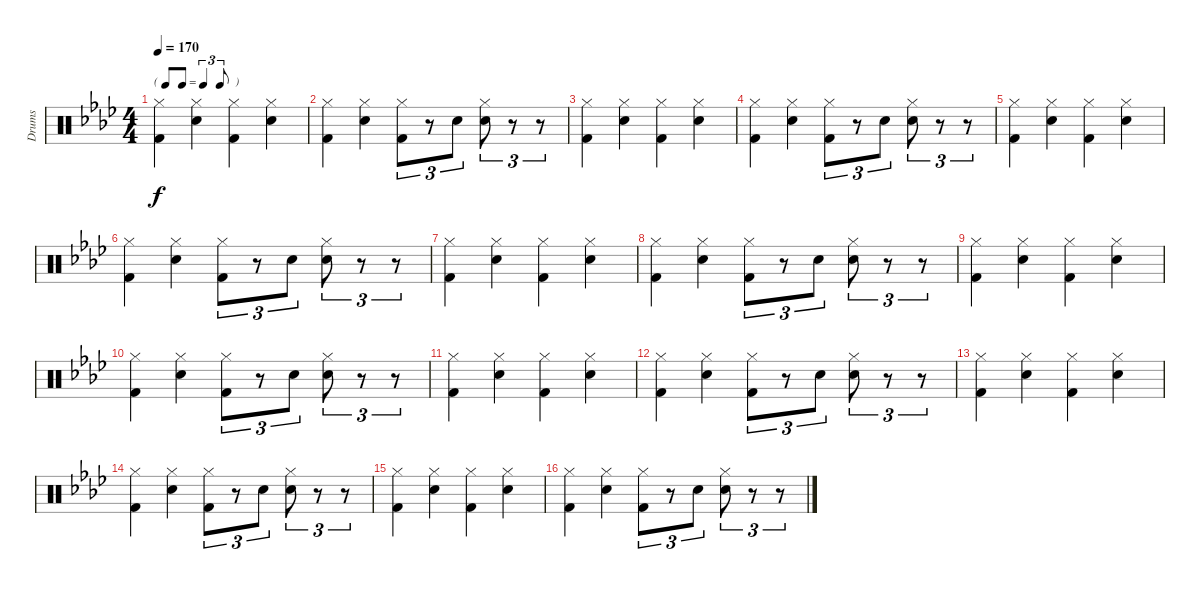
\track ("Drums" "Drums") {instrument percussion}
\staff {score}
\articulation defaults
\ts (4 4)
\tf triplet8th
\tempo 170
\clef neutral
\ks ab
("Hi-Hat (closed)" "Kick (hit) 2").4{dy f} ("Hi-Hat (closed)" "Snare (hit) 2").4 ("Hi-Hat (closed)" "Kick (hit) 2").4 ("Hi-Hat (closed)" "Snare (hit) 2").4 |
("Hi-Hat (closed)" "Kick (hit) 2").4 ("Hi-Hat (closed)" "Snare (hit) 2").4 ("Hi-Hat (closed)" "Kick (hit) 2").8{tu (3 2)} r.8{tu (3 2)} "Snare (hit) 2".8{tu (3 2)} ("Hi-Hat (closed)" "Snare (hit) 2").8{tu (3 2)} r.8{tu (3 2)} r.8{tu (3 2)} |
("Hi-Hat (closed)" "Kick (hit) 2").4 ("Hi-Hat (closed)" "Snare (hit) 2").4 ("Hi-Hat (closed)" "Kick (hit) 2").4 ("Hi-Hat (closed)" "Snare (hit) 2").4 |
("Hi-Hat (closed)" "Kick (hit) 2").4 ("Hi-Hat (closed)" "Snare (hit) 2").4 ("Hi-Hat (closed)" "Kick (hit) 2").8{tu (3 2)} r.8{tu (3 2)} "Snare (hit) 2".8{tu (3 2)} ("Hi-Hat (closed)" "Snare (hit) 2").8{tu (3 2)} r.8{tu (3 2)} r.8{tu (3 2)} |
("Hi-Hat (closed)" "Kick (hit) 2").4 ("Hi-Hat (closed)" "Snare (hit) 2").4 ("Hi-Hat (closed)" "Kick (hit) 2").4 ("Hi-Hat (closed)" "Snare (hit) 2").4 |
("Hi-Hat (closed)" "Kick (hit) 2").4 ("Hi-Hat (closed)" "Snare (hit) 2").4 ("Hi-Hat (closed)" "Kick (hit) 2").8{tu (3 2)} r.8{tu (3 2)} "Snare (hit) 2".8{tu (3 2)} ("Hi-Hat (closed)" "Snare (hit) 2").8{tu (3 2)} r.8{tu (3 2)} r.8{tu (3 2)} |
("Hi-Hat (closed)" "Kick (hit) 2").4 ("Hi-Hat (closed)" "Snare (hit) 2").4 ("Hi-Hat (closed)" "Kick (hit) 2").4 ("Hi-Hat (closed)" "Snare (hit) 2").4 |
("Hi-Hat (closed)" "Kick (hit) 2").4 ("Hi-Hat (closed)" "Snare (hit) 2").4 ("Hi-Hat (closed)" "Kick (hit) 2").8{tu (3 2)} r.8{tu (3 2)} "Snare (hit) 2".8{tu (3 2)} ("Hi-Hat (closed)" "Snare (hit) 2").8{tu (3 2)} r.8{tu (3 2)} r.8{tu (3 2)} |
("Hi-Hat (closed)" "Kick (hit) 2").4 ("Hi-Hat (closed)" "Snare (hit) 2").4 ("Hi-Hat (closed)" "Kick (hit) 2").4 ("Hi-Hat (closed)" "Snare (hit) 2").4 |
("Hi-Hat (closed)" "Kick (hit) 2").4 ("Hi-Hat (closed)" "Snare (hit) 2").4 ("Hi-Hat (closed)" "Kick (hit) 2").8{tu (3 2)} r.8{tu (3 2)} "Snare (hit) 2".8{tu (3 2)} ("Hi-Hat (closed)" "Snare (hit) 2").8{tu (3 2)} r.8{tu (3 2)} r.8{tu (3 2)} |
("Hi-Hat (closed)" "Kick (hit) 2").4 ("Hi-Hat (closed)" "Snare (hit) 2").4 ("Hi-Hat (closed)" "Kick (hit) 2").4 ("Hi-Hat (closed)" "Snare (hit) 2").4 |
("Hi-Hat (closed)" "Kick (hit) 2").4 ("Hi-Hat (closed)" "Snare (hit) 2").4 ("Hi-Hat (closed)" "Kick (hit) 2").8{tu (3 2)} r.8{tu (3 2)} "Snare (hit) 2".8{tu (3 2)} ("Hi-Hat (closed)" "Snare (hit) 2").8{tu (3 2)} r.8{tu (3 2)} r.8{tu (3 2)} |
("Hi-Hat (closed)" "Kick (hit) 2").4 ("Hi-Hat (closed)" "Snare (hit) 2").4 ("Hi-Hat (closed)" "Kick (hit) 2").4 ("Hi-Hat (closed)" "Snare (hit) 2").4 |
("Hi-Hat (closed)" "Kick (hit) 2").4 ("Hi-Hat (closed)" "Snare (hit) 2").4 ("Hi-Hat (closed)" "Kick (hit) 2").8{tu (3 2)} r.8{tu (3 2)} "Snare (hit) 2".8{tu (3 2)} ("Hi-Hat (closed)" "Snare (hit) 2").8{tu (3 2)} r.8{tu (3 2)} r.8{tu (3 2)} |
("Hi-Hat (closed)" "Kick (hit) 2").4 ("Hi-Hat (closed)" "Snare (hit) 2").4 ("Hi-Hat (closed)" "Kick (hit) 2").4 ("Hi-Hat (closed)" "Snare (hit) 2").4 |
("Hi-Hat (closed)" "Kick (hit) 2").4 ("Hi-Hat (closed)" "Snare (hit) 2").4 ("Hi-Hat (closed)" "Kick (hit) 2").8{tu (3 2)} r.8{tu (3 2)} "Snare (hit) 2".8{tu (3 2)} ("Hi-Hat (closed)" "Snare (hit) 2").8{tu (3 2)} r.8{tu (3 2)} r.8{tu (3 2)}
